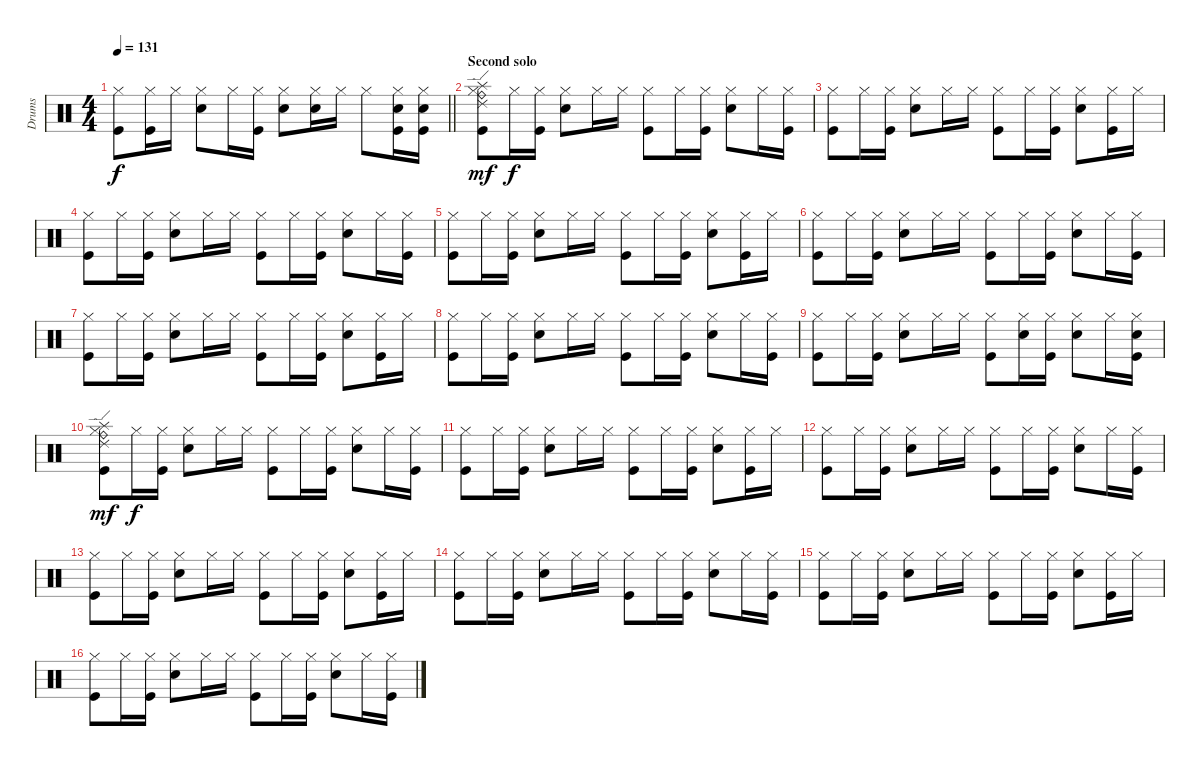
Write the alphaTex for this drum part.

\track ("Drums" "Drums") {instrument percussion}
\staff {score}
\articulation defaults
\ts (4 4)
\tempo 131
\clef neutral
\barLineRight lightlight
\ks c
("Hi-Hat (closed)" "Kick (hit)").8{dy f} ("Hi-Hat (closed)" "Kick (hit)").16 "Hi-Hat (closed)".16 ("Hi-Hat (closed)" "Electric Snare (hit)").8 "Hi-Hat (closed)".16 ("Hi-Hat (closed)" "Kick (hit)").16 ("Hi-Hat (closed)" "Electric Snare (hit)").8 ("Hi-Hat (closed)" "Electric Snare (hit)").16 "Hi-Hat (closed)".16 "Hi-Hat (closed)".8 ("Hi-Hat (closed)" "Electric Snare (hit)" "Kick (hit)").16 ("Hi-Hat (closed)" "Electric Snare (hit)" "Kick (hit)").16 |
\section ("" "Second solo")
("Hi-Hat (closed)" "Splash (hit)" "Ride (bell)" "Ride (edge) 2" "Kick (hit)").8{dy mf} "Hi-Hat (closed)".16{dy f} ("Hi-Hat (closed)" "Kick (hit)").16 ("Hi-Hat (closed)" "Electric Snare (hit)").8 "Hi-Hat (closed)".16 "Hi-Hat (closed)".16 ("Hi-Hat (closed)" "Kick (hit)").8 "Hi-Hat (closed)".16 ("Hi-Hat (closed)" "Kick (hit)").16 ("Hi-Hat (closed)" "Electric Snare (hit)").8 "Hi-Hat (closed)".16 ("Hi-Hat (closed)" "Kick (hit)").16 |
("Hi-Hat (closed)" "Kick (hit)").8 "Hi-Hat (closed)".16 ("Hi-Hat (closed)" "Kick (hit)").16 ("Hi-Hat (closed)" "Electric Snare (hit)").8 "Hi-Hat (closed)".16 "Hi-Hat (closed)".16 ("Hi-Hat (closed)" "Kick (hit)").8 "Hi-Hat (closed)".16 ("Hi-Hat (closed)" "Kick (hit)").16 ("Hi-Hat (closed)" "Electric Snare (hit)").8 ("Hi-Hat (closed)" "Kick (hit)").16 "Hi-Hat (closed)".16 |
("Hi-Hat (closed)" "Kick (hit)").8 "Hi-Hat (closed)".16 ("Hi-Hat (closed)" "Kick (hit)").16 ("Hi-Hat (closed)" "Electric Snare (hit)").8 "Hi-Hat (closed)".16 "Hi-Hat (closed)".16 ("Hi-Hat (closed)" "Kick (hit)").8 "Hi-Hat (closed)".16 ("Hi-Hat (closed)" "Kick (hit)").16 ("Hi-Hat (closed)" "Electric Snare (hit)").8 "Hi-Hat (closed)".16 ("Hi-Hat (closed)" "Kick (hit)").16 |
("Hi-Hat (closed)" "Kick (hit)").8 "Hi-Hat (closed)".16 ("Hi-Hat (closed)" "Kick (hit)").16 ("Hi-Hat (closed)" "Electric Snare (hit)").8 "Hi-Hat (closed)".16 "Hi-Hat (closed)".16 ("Hi-Hat (closed)" "Kick (hit)").8 "Hi-Hat (closed)".16 ("Hi-Hat (closed)" "Kick (hit)").16 ("Hi-Hat (closed)" "Electric Snare (hit)").8 ("Hi-Hat (closed)" "Kick (hit)").16 "Hi-Hat (closed)".16 |
("Hi-Hat (closed)" "Kick (hit)").8 "Hi-Hat (closed)".16 ("Hi-Hat (closed)" "Kick (hit)").16 ("Hi-Hat (closed)" "Electric Snare (hit)").8 "Hi-Hat (closed)".16 "Hi-Hat (closed)".16 ("Hi-Hat (closed)" "Kick (hit)").8 "Hi-Hat (closed)".16 ("Hi-Hat (closed)" "Kick (hit)").16 ("Hi-Hat (closed)" "Electric Snare (hit)").8 "Hi-Hat (closed)".16 ("Hi-Hat (closed)" "Kick (hit)").16 |
("Hi-Hat (closed)" "Kick (hit)").8 "Hi-Hat (closed)".16 ("Hi-Hat (closed)" "Kick (hit)").16 ("Hi-Hat (closed)" "Electric Snare (hit)").8 "Hi-Hat (closed)".16 "Hi-Hat (closed)".16 ("Hi-Hat (closed)" "Kick (hit)").8 "Hi-Hat (closed)".16 ("Hi-Hat (closed)" "Kick (hit)").16 ("Hi-Hat (closed)" "Electric Snare (hit)").8 ("Hi-Hat (closed)" "Kick (hit)").16 "Hi-Hat (closed)".16 |
("Hi-Hat (closed)" "Kick (hit)").8 "Hi-Hat (closed)".16 ("Hi-Hat (closed)" "Kick (hit)").16 ("Hi-Hat (closed)" "Electric Snare (hit)").8 "Hi-Hat (closed)".16 "Hi-Hat (closed)".16 ("Hi-Hat (closed)" "Kick (hit)").8 "Hi-Hat (closed)".16 ("Hi-Hat (closed)" "Kick (hit)").16 ("Hi-Hat (closed)" "Electric Snare (hit)").8 "Hi-Hat (closed)".16 ("Hi-Hat (closed)" "Kick (hit)").16 |
("Hi-Hat (closed)" "Kick (hit)").8 "Hi-Hat (closed)".16 ("Hi-Hat (closed)" "Kick (hit)").16 ("Hi-Hat (closed)" "Electric Snare (hit)").8 "Hi-Hat (closed)".16 "Hi-Hat (closed)".16 ("Hi-Hat (closed)" "Kick (hit)").8 ("Hi-Hat (closed)" "Electric Snare (hit)").16 ("Hi-Hat (closed)" "Kick (hit)").16 ("Hi-Hat (closed)" "Electric Snare (hit)").8 "Hi-Hat (closed)".16 ("Hi-Hat (closed)" "Electric Snare (hit)" "Kick (hit)").16 |
("Hi-Hat (closed)" "Splash (hit)" "Ride (bell)" "Ride (edge) 2" "Kick (hit)").8{dy mf} "Hi-Hat (closed)".16{dy f} ("Hi-Hat (closed)" "Kick (hit)").16 ("Hi-Hat (closed)" "Electric Snare (hit)").8 "Hi-Hat (closed)".16 "Hi-Hat (closed)".16 ("Hi-Hat (closed)" "Kick (hit)").8 "Hi-Hat (closed)".16 ("Hi-Hat (closed)" "Kick (hit)").16 ("Hi-Hat (closed)" "Electric Snare (hit)").8 "Hi-Hat (closed)".16 ("Hi-Hat (closed)" "Kick (hit)").16 |
("Hi-Hat (closed)" "Kick (hit)").8 "Hi-Hat (closed)".16 ("Hi-Hat (closed)" "Kick (hit)").16 ("Hi-Hat (closed)" "Electric Snare (hit)").8 "Hi-Hat (closed)".16 "Hi-Hat (closed)".16 ("Hi-Hat (closed)" "Kick (hit)").8 "Hi-Hat (closed)".16 ("Hi-Hat (closed)" "Kick (hit)").16 ("Hi-Hat (closed)" "Electric Snare (hit)").8 ("Hi-Hat (closed)" "Kick (hit)").16 "Hi-Hat (closed)".16 |
("Hi-Hat (closed)" "Kick (hit)").8 "Hi-Hat (closed)".16 ("Hi-Hat (closed)" "Kick (hit)").16 ("Hi-Hat (closed)" "Electric Snare (hit)").8 "Hi-Hat (closed)".16 "Hi-Hat (closed)".16 ("Hi-Hat (closed)" "Kick (hit)").8 "Hi-Hat (closed)".16 ("Hi-Hat (closed)" "Kick (hit)").16 ("Hi-Hat (closed)" "Electric Snare (hit)").8 "Hi-Hat (closed)".16 ("Hi-Hat (closed)" "Kick (hit)").16 |
("Hi-Hat (closed)" "Kick (hit)").8 "Hi-Hat (closed)".16 ("Hi-Hat (closed)" "Kick (hit)").16 ("Hi-Hat (closed)" "Electric Snare (hit)").8 "Hi-Hat (closed)".16 "Hi-Hat (closed)".16 ("Hi-Hat (closed)" "Kick (hit)").8 "Hi-Hat (closed)".16 ("Hi-Hat (closed)" "Kick (hit)").16 ("Hi-Hat (closed)" "Electric Snare (hit)").8 ("Hi-Hat (closed)" "Kick (hit)").16 "Hi-Hat (closed)".16 |
("Hi-Hat (closed)" "Kick (hit)").8 "Hi-Hat (closed)".16 ("Hi-Hat (closed)" "Kick (hit)").16 ("Hi-Hat (closed)" "Electric Snare (hit)").8 "Hi-Hat (closed)".16 "Hi-Hat (closed)".16 ("Hi-Hat (closed)" "Kick (hit)").8 "Hi-Hat (closed)".16 ("Hi-Hat (closed)" "Kick (hit)").16 ("Hi-Hat (closed)" "Electric Snare (hit)").8 "Hi-Hat (closed)".16 ("Hi-Hat (closed)" "Kick (hit)").16 |
("Hi-Hat (closed)" "Kick (hit)").8 "Hi-Hat (closed)".16 ("Hi-Hat (closed)" "Kick (hit)").16 ("Hi-Hat (closed)" "Electric Snare (hit)").8 "Hi-Hat (closed)".16 "Hi-Hat (closed)".16 ("Hi-Hat (closed)" "Kick (hit)").8 "Hi-Hat (closed)".16 ("Hi-Hat (closed)" "Kick (hit)").16 ("Hi-Hat (closed)" "Electric Snare (hit)").8 ("Hi-Hat (closed)" "Kick (hit)").16 "Hi-Hat (closed)".16 |
("Hi-Hat (closed)" "Kick (hit)").8 "Hi-Hat (closed)".16 ("Hi-Hat (closed)" "Kick (hit)").16 ("Hi-Hat (closed)" "Electric Snare (hit)").8 "Hi-Hat (closed)".16 "Hi-Hat (closed)".16 ("Hi-Hat (closed)" "Kick (hit)").8 "Hi-Hat (closed)".16 ("Hi-Hat (closed)" "Kick (hit)").16 ("Hi-Hat (closed)" "Electric Snare (hit)").8 "Hi-Hat (closed)".16 ("Hi-Hat (closed)" "Kick (hit)").16
